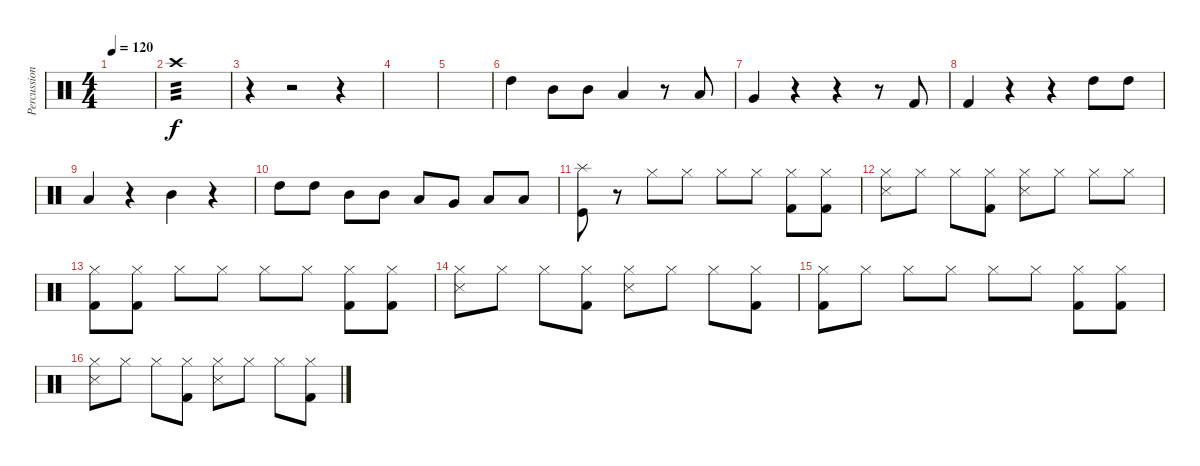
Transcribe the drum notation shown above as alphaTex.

\track ("Percussion" "Percussion") {instrument percussion}
\staff {score}
\articulation defaults
\ts (4 4)
\tempo 120
\clef neutral
\ks c
|
"Crash high (hit)".1{tp 3 volume 13} |
r.4 r.2 r.4 |
|
|
"High Tom (hit)".4 "Mid Tom (hit)".8 "Mid Tom (hit)".8 "Low Tom (hit)".4 r.8 "Low Tom (hit)".8 |
"Very Low Tom (hit)".4 r.4 r.4 r.8 "Kick (hit) 2".8 |
"Kick (hit) 2".4 r.4 r.4 "High Tom (hit)".8 "High Tom (hit)".8 |
"Low Tom (hit)".4 r.4 "Mid Tom (hit)".4 r.4 |
"High Tom (hit)".8 "High Tom (hit)".8 "Mid Tom (hit)".8 "Mid Tom (hit)".8 "Low Tom (hit)".8 "Very Low Tom (hit)".8 "Low Floor Tom (hit)".8 "Low Floor Tom (hit)".8 |
("Splash (hit)" "Kick (hit)").8 r.8 "Hi-Hat (closed)".8 "Hi-Hat (closed)".8 "Hi-Hat (closed)".8 "Hi-Hat (closed)".8 ("Kick (hit) 2" "Hi-Hat (closed)").8 ("Kick (hit) 2" "Hi-Hat (closed)").8 |
("Snare (side stick) 3" "Hi-Hat (closed)").8 "Hi-Hat (closed)".8 "Hi-Hat (closed)".8 ("Kick (hit) 2" "Hi-Hat (closed)").8 ("Snare (side stick) 3" "Hi-Hat (closed)").8 "Hi-Hat (closed)".8 "Hi-Hat (closed)".8 "Hi-Hat (closed)".8 |
("Kick (hit) 2" "Hi-Hat (closed)").8 ("Kick (hit) 2" "Hi-Hat (closed)").8 "Hi-Hat (closed)".8 "Hi-Hat (closed)".8 "Hi-Hat (closed)".8 "Hi-Hat (closed)".8 ("Kick (hit) 2" "Hi-Hat (closed)").8 ("Kick (hit) 2" "Hi-Hat (closed)").8 |
("Snare (side stick) 3" "Hi-Hat (closed)").8 "Hi-Hat (closed)".8 "Hi-Hat (closed)".8 ("Kick (hit) 2" "Hi-Hat (closed)").8 ("Snare (side stick) 3" "Hi-Hat (closed)").8 "Hi-Hat (closed)".8 "Hi-Hat (closed)".8 ("Kick (hit) 2" "Hi-Hat (closed)").8 |
("Kick (hit) 2" "Hi-Hat (closed)").8 "Hi-Hat (closed)".8 "Hi-Hat (closed)".8 "Hi-Hat (closed)".8 "Hi-Hat (closed)".8 "Hi-Hat (closed)".8 ("Kick (hit) 2" "Hi-Hat (closed)").8 ("Kick (hit) 2" "Hi-Hat (closed)").8 |
("Snare (side stick) 3" "Hi-Hat (closed)").8 "Hi-Hat (closed)".8 "Hi-Hat (closed)".8 ("Kick (hit) 2" "Hi-Hat (closed)").8 ("Snare (side stick) 3" "Hi-Hat (closed)").8 "Hi-Hat (closed)".8 "Hi-Hat (closed)".8 ("Kick (hit) 2" "Hi-Hat (closed)").8
